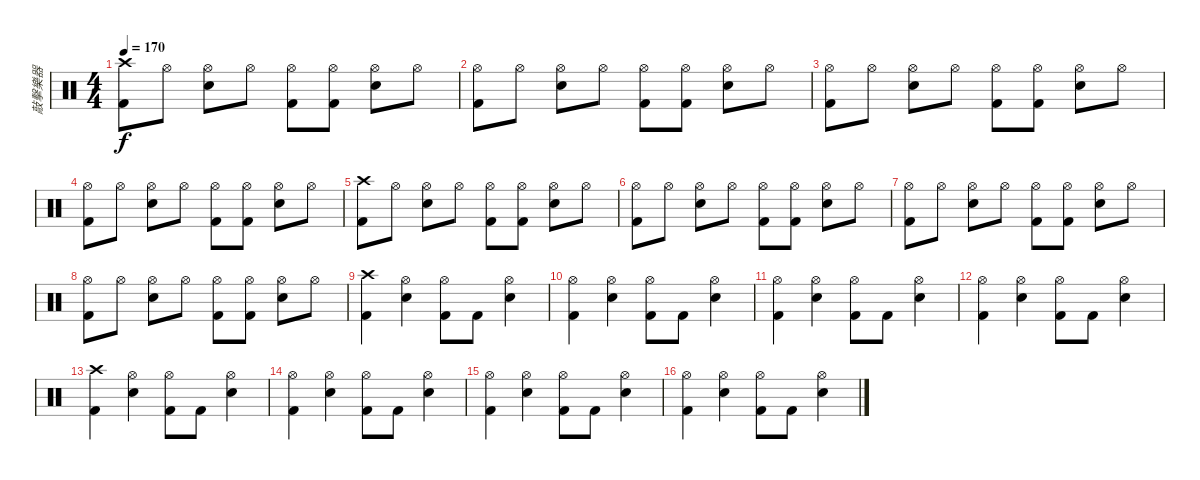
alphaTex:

\track ("敲擊樂器" "敲擊樂器") {instrument percussion}
\staff {score}
\articulation defaults
\ts (4 4)
\tempo 170
\clef neutral
\ks c
("Crash high (hit)" "Kick (hit) 2").8{dy f} "Hi-Hat (open)".8 ("Hi-Hat (open)" "Snare (hit) 2").8 "Hi-Hat (open)".8 ("Hi-Hat (open)" "Kick (hit) 2").8 ("Hi-Hat (open)" "Kick (hit) 2").8 ("Hi-Hat (open)" "Snare (hit) 2").8 "Hi-Hat (open)".8 |
("Hi-Hat (open)" "Kick (hit) 2").8 "Hi-Hat (open)".8 ("Hi-Hat (open)" "Snare (hit) 2").8 "Hi-Hat (open)".8 ("Hi-Hat (open)" "Kick (hit) 2").8 ("Hi-Hat (open)" "Kick (hit) 2").8 ("Hi-Hat (open)" "Snare (hit) 2").8 "Hi-Hat (open)".8 |
("Hi-Hat (open)" "Kick (hit) 2").8 "Hi-Hat (open)".8 ("Hi-Hat (open)" "Snare (hit) 2").8 "Hi-Hat (open)".8 ("Hi-Hat (open)" "Kick (hit) 2").8 ("Hi-Hat (open)" "Kick (hit) 2").8 ("Hi-Hat (open)" "Snare (hit) 2").8 "Hi-Hat (open)".8 |
("Hi-Hat (open)" "Kick (hit) 2").8 "Hi-Hat (open)".8 ("Hi-Hat (open)" "Snare (hit) 2").8 "Hi-Hat (open)".8 ("Hi-Hat (open)" "Kick (hit) 2").8 ("Hi-Hat (open)" "Kick (hit) 2").8 ("Hi-Hat (open)" "Snare (hit) 2").8 "Hi-Hat (open)".8 |
("Crash high (hit)" "Kick (hit) 2").8 "Hi-Hat (open)".8 ("Hi-Hat (open)" "Snare (hit) 2").8 "Hi-Hat (open)".8 ("Hi-Hat (open)" "Kick (hit) 2").8 ("Hi-Hat (open)" "Kick (hit) 2").8 ("Hi-Hat (open)" "Snare (hit) 2").8 "Hi-Hat (open)".8 |
("Hi-Hat (open)" "Kick (hit) 2").8 "Hi-Hat (open)".8 ("Hi-Hat (open)" "Snare (hit) 2").8 "Hi-Hat (open)".8 ("Hi-Hat (open)" "Kick (hit) 2").8 ("Hi-Hat (open)" "Kick (hit) 2").8 ("Hi-Hat (open)" "Snare (hit) 2").8 "Hi-Hat (open)".8 |
("Hi-Hat (open)" "Kick (hit) 2").8 "Hi-Hat (open)".8 ("Hi-Hat (open)" "Snare (hit) 2").8 "Hi-Hat (open)".8 ("Hi-Hat (open)" "Kick (hit) 2").8 ("Hi-Hat (open)" "Kick (hit) 2").8 ("Hi-Hat (open)" "Snare (hit) 2").8 "Hi-Hat (open)".8 |
("Hi-Hat (open)" "Kick (hit) 2").8 "Hi-Hat (open)".8 ("Hi-Hat (open)" "Snare (hit) 2").8 "Hi-Hat (open)".8 ("Hi-Hat (open)" "Kick (hit) 2").8 ("Hi-Hat (open)" "Kick (hit) 2").8 ("Hi-Hat (open)" "Snare (hit) 2").8 "Hi-Hat (open)".8 |
("Crash high (hit)" "Kick (hit) 2").4 ("Hi-Hat (open)" "Snare (hit) 2").4 ("Hi-Hat (open)" "Kick (hit) 2").8 "Kick (hit) 2".8 ("Hi-Hat (open)" "Snare (hit) 2").4 |
("Hi-Hat (open)" "Kick (hit) 2").4 ("Hi-Hat (open)" "Snare (hit) 2").4 ("Hi-Hat (open)" "Kick (hit) 2").8 "Kick (hit) 2".8 ("Hi-Hat (open)" "Snare (hit) 2").4 |
("Hi-Hat (open)" "Kick (hit) 2").4 ("Hi-Hat (open)" "Snare (hit) 2").4 ("Hi-Hat (open)" "Kick (hit) 2").8 "Kick (hit) 2".8 ("Hi-Hat (open)" "Snare (hit) 2").4 |
("Hi-Hat (open)" "Kick (hit) 2").4 ("Hi-Hat (open)" "Snare (hit) 2").4 ("Hi-Hat (open)" "Kick (hit) 2").8 "Kick (hit) 2".8 ("Hi-Hat (open)" "Snare (hit) 2").4 |
("Crash high (hit)" "Kick (hit) 2").4 ("Hi-Hat (open)" "Snare (hit) 2").4 ("Hi-Hat (open)" "Kick (hit) 2").8 "Kick (hit) 2".8 ("Hi-Hat (open)" "Snare (hit) 2").4 |
("Hi-Hat (open)" "Kick (hit) 2").4 ("Hi-Hat (open)" "Snare (hit) 2").4 ("Hi-Hat (open)" "Kick (hit) 2").8 "Kick (hit) 2".8 ("Hi-Hat (open)" "Snare (hit) 2").4 |
("Hi-Hat (open)" "Kick (hit) 2").4 ("Hi-Hat (open)" "Snare (hit) 2").4 ("Hi-Hat (open)" "Kick (hit) 2").8 "Kick (hit) 2".8 ("Hi-Hat (open)" "Snare (hit) 2").4 |
("Hi-Hat (open)" "Kick (hit) 2").4 ("Hi-Hat (open)" "Snare (hit) 2").4 ("Hi-Hat (open)" "Kick (hit) 2").8 "Kick (hit) 2".8 ("Hi-Hat (open)" "Snare (hit) 2").4
